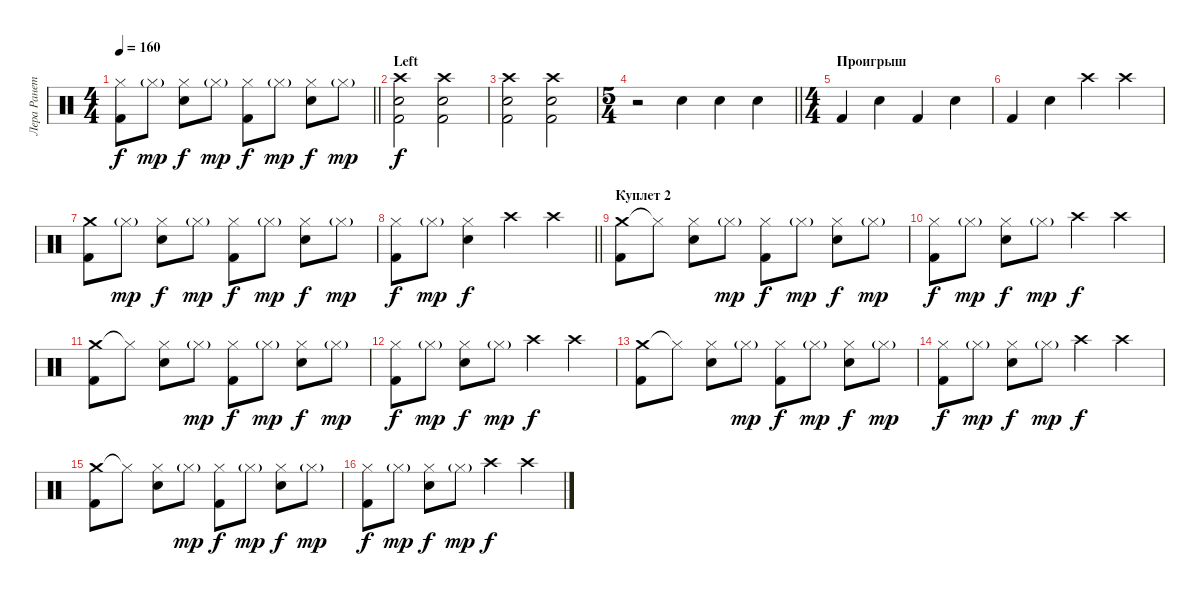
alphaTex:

\track ("Лера Ранетка" "Лера Ранет") {instrument percussion}
\staff {score}
\articulation defaults
\ts (4 4)
\tempo 160
\clef neutral
\barLineRight lightlight
\ks c
("Hi-Hat (closed)" "Kick (hit) 2").8{dy f} "Hi-Hat (closed)"{g}.8{dy mp} ("Hi-Hat (closed)" "Snare (hit) 2").8{dy f} "Hi-Hat (closed)"{g}.8{dy mp} ("Hi-Hat (closed)" "Kick (hit) 2").8{dy f} "Hi-Hat (closed)"{g}.8{dy mp} ("Hi-Hat (closed)" "Snare (hit) 2").8{dy f} "Hi-Hat (closed)"{g}.8{dy mp} |
\section ("" "Left")
("Crash high (hit)" "Snare (hit) 2" "Kick (hit) 2").2{dy f} ("Crash high (hit)" "Snare (hit) 2" "Kick (hit) 2").2 |
("Crash high (hit)" "Snare (hit) 2" "Kick (hit) 2").2 ("Crash high (hit)" "Snare (hit) 2" "Kick (hit) 2").2 |
\ts (5 4)
\barLineRight lightlight
r.2 "Snare (hit) 2".4 "Snare (hit) 2".4 "Snare (hit) 2".4 |
\ts (4 4)
\section ("" "Проигрыш")
"Kick (hit) 2".4 "Snare (hit) 2".4 "Kick (hit) 2".4 "Snare (hit) 2".4 |
"Kick (hit) 2".4 "Snare (hit) 2".4 "Crash high (hit)".4 "Crash high (hit)".4 |
("Crash medium (hit)" "Kick (hit) 2").8 "Hi-Hat (closed)"{g}.8{dy mp} ("Hi-Hat (closed)" "Snare (hit) 2").8{dy f} "Hi-Hat (closed)"{g}.8{dy mp} ("Hi-Hat (closed)" "Kick (hit) 2").8{dy f} "Hi-Hat (closed)"{g}.8{dy mp} ("Hi-Hat (closed)" "Snare (hit) 2").8{dy f} "Hi-Hat (closed)"{g}.8{dy mp} |
\barLineRight lightlight
("Hi-Hat (closed)" "Kick (hit) 2").8{dy f} "Hi-Hat (closed)"{g}.8{dy mp} ("Hi-Hat (closed)" "Snare (hit) 2").4{dy f} "Crash high (hit)".4 "Crash high (hit)".4 |
\section ("" "Куплет 2")
("Crash medium (hit)" "Kick (hit) 2").8 "Hi-Hat (closed)"{t}.8 ("Hi-Hat (closed)" "Snare (hit) 2").8 "Hi-Hat (closed)"{g}.8{dy mp} ("Hi-Hat (closed)" "Kick (hit) 2").8{dy f} "Hi-Hat (closed)"{g}.8{dy mp} ("Hi-Hat (closed)" "Snare (hit) 2").8{dy f} "Hi-Hat (closed)"{g}.8{dy mp} |
("Hi-Hat (closed)" "Kick (hit) 2").8{dy f} "Hi-Hat (closed)"{g}.8{dy mp} ("Hi-Hat (closed)" "Snare (hit) 2").8{dy f} "Hi-Hat (closed)"{g}.8{dy mp} "Crash high (hit)".4{dy f} "Crash high (hit)".4 |
("Crash medium (hit)" "Kick (hit) 2").8 "Hi-Hat (closed)"{t}.8 ("Hi-Hat (closed)" "Snare (hit) 2").8 "Hi-Hat (closed)"{g}.8{dy mp} ("Hi-Hat (closed)" "Kick (hit) 2").8{dy f} "Hi-Hat (closed)"{g}.8{dy mp} ("Hi-Hat (closed)" "Snare (hit) 2").8{dy f} "Hi-Hat (closed)"{g}.8{dy mp} |
("Hi-Hat (closed)" "Kick (hit) 2").8{dy f} "Hi-Hat (closed)"{g}.8{dy mp} ("Hi-Hat (closed)" "Snare (hit) 2").8{dy f} "Hi-Hat (closed)"{g}.8{dy mp} "Crash high (hit)".4{dy f} "Crash high (hit)".4 |
("Crash medium (hit)" "Kick (hit) 2").8 "Hi-Hat (closed)"{t}.8 ("Hi-Hat (closed)" "Snare (hit) 2").8 "Hi-Hat (closed)"{g}.8{dy mp} ("Hi-Hat (closed)" "Kick (hit) 2").8{dy f} "Hi-Hat (closed)"{g}.8{dy mp} ("Hi-Hat (closed)" "Snare (hit) 2").8{dy f} "Hi-Hat (closed)"{g}.8{dy mp} |
("Hi-Hat (closed)" "Kick (hit) 2").8{dy f} "Hi-Hat (closed)"{g}.8{dy mp} ("Hi-Hat (closed)" "Snare (hit) 2").8{dy f} "Hi-Hat (closed)"{g}.8{dy mp} "Crash high (hit)".4{dy f} "Crash high (hit)".4 |
("Crash medium (hit)" "Kick (hit) 2").8 "Hi-Hat (closed)"{t}.8 ("Hi-Hat (closed)" "Snare (hit) 2").8 "Hi-Hat (closed)"{g}.8{dy mp} ("Hi-Hat (closed)" "Kick (hit) 2").8{dy f} "Hi-Hat (closed)"{g}.8{dy mp} ("Hi-Hat (closed)" "Snare (hit) 2").8{dy f} "Hi-Hat (closed)"{g}.8{dy mp} |
("Hi-Hat (closed)" "Kick (hit) 2").8{dy f} "Hi-Hat (closed)"{g}.8{dy mp} ("Hi-Hat (closed)" "Snare (hit) 2").8{dy f} "Hi-Hat (closed)"{g}.8{dy mp} "Crash high (hit)".4{dy f} "Crash high (hit)".4
